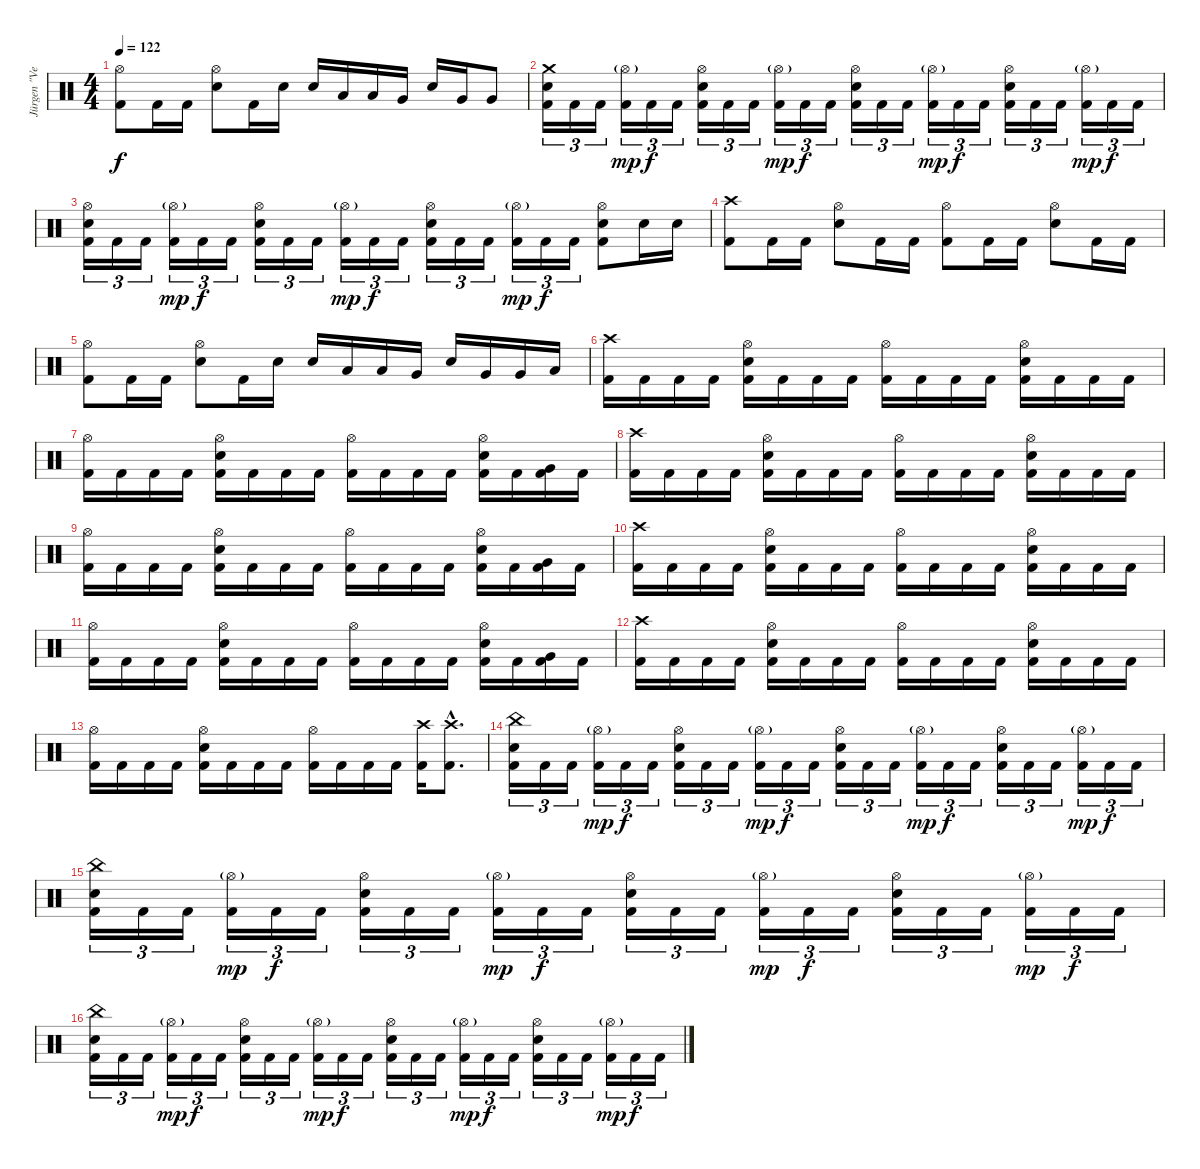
\track ("Jürgen \"Ventor\" Reil Drums" "Jürgen \"Ve") {instrument percussion}
\staff {score}
\articulation defaults
\ts (4 4)
\tempo 122
\clef neutral
\ks c
("Hi-Hat (open)" "Kick (hit) 2").8{dy f} "Kick (hit) 2".16 "Kick (hit) 2".16 ("Hi-Hat (open)" "Snare (hit) 2").8 "Kick (hit) 2".16 "Snare (hit) 2".16 "Snare (hit) 2".16 "Low Tom (hit)".16 "Low Tom (hit)".16 "Very Low Tom (hit)".16 "Snare (hit) 2".16 "Very Low Tom (hit)".16 "Very Low Tom (hit)".8 |
("Crash medium (hit)" "Snare (hit) 2" "Kick (hit) 2").16{tu (3 2)} "Kick (hit) 2".16{tu (3 2)} "Kick (hit) 2".16{tu (3 2)} ("Hi-Hat (open)"{g} "Kick (hit) 2").16{tu (3 2) dy mp} "Kick (hit) 2".16{tu (3 2) dy f} "Kick (hit) 2".16{tu (3 2)} ("Hi-Hat (open)" "Snare (hit) 2" "Kick (hit) 2").16{tu (3 2)} "Kick (hit) 2".16{tu (3 2)} "Kick (hit) 2".16{tu (3 2)} ("Hi-Hat (open)"{g} "Kick (hit) 2").16{tu (3 2) dy mp} "Kick (hit) 2".16{tu (3 2) dy f} "Kick (hit) 2".16{tu (3 2)} ("Hi-Hat (open)" "Snare (hit) 2" "Kick (hit) 2").16{tu (3 2)} "Kick (hit) 2".16{tu (3 2)} "Kick (hit) 2".16{tu (3 2)} ("Hi-Hat (open)"{g} "Kick (hit) 2").16{tu (3 2) dy mp} "Kick (hit) 2".16{tu (3 2) dy f} "Kick (hit) 2".16{tu (3 2)} ("Hi-Hat (open)" "Snare (hit) 2" "Kick (hit) 2").16{tu (3 2)} "Kick (hit) 2".16{tu (3 2)} "Kick (hit) 2".16{tu (3 2)} ("Hi-Hat (open)"{g} "Kick (hit) 2").16{tu (3 2) dy mp} "Kick (hit) 2".16{tu (3 2) dy f} "Kick (hit) 2".16{tu (3 2)} |
("Hi-Hat (open)" "Snare (hit) 2" "Kick (hit) 2").16{tu (3 2)} "Kick (hit) 2".16{tu (3 2)} "Kick (hit) 2".16{tu (3 2)} ("Hi-Hat (open)"{g} "Kick (hit) 2").16{tu (3 2) dy mp} "Kick (hit) 2".16{tu (3 2) dy f} "Kick (hit) 2".16{tu (3 2)} ("Hi-Hat (open)" "Snare (hit) 2" "Kick (hit) 2").16{tu (3 2)} "Kick (hit) 2".16{tu (3 2)} "Kick (hit) 2".16{tu (3 2)} ("Hi-Hat (open)"{g} "Kick (hit) 2").16{tu (3 2) dy mp} "Kick (hit) 2".16{tu (3 2) dy f} "Kick (hit) 2".16{tu (3 2)} ("Hi-Hat (open)" "Snare (hit) 2" "Kick (hit) 2").16{tu (3 2)} "Kick (hit) 2".16{tu (3 2)} "Kick (hit) 2".16{tu (3 2)} ("Hi-Hat (open)"{g} "Kick (hit) 2").16{tu (3 2) dy mp} "Kick (hit) 2".16{tu (3 2) dy f} "Kick (hit) 2".16{tu (3 2)} ("Hi-Hat (open)" "Snare (hit) 2" "Kick (hit) 2").8 "Snare (hit) 2".16 "Snare (hit) 2".16 |
("Crash high (hit)" "Kick (hit) 2").8 "Kick (hit) 2".16 "Kick (hit) 2".16 ("Hi-Hat (open)" "Snare (hit) 2").8 "Kick (hit) 2".16 "Kick (hit) 2".16 ("Hi-Hat (open)" "Kick (hit) 2").8 "Kick (hit) 2".16 "Kick (hit) 2".16 ("Hi-Hat (open)" "Snare (hit) 2").8 "Kick (hit) 2".16 "Kick (hit) 2".16 |
("Hi-Hat (open)" "Kick (hit) 2").8 "Kick (hit) 2".16 "Kick (hit) 2".16 ("Hi-Hat (open)" "Snare (hit) 2").8 "Kick (hit) 2".16 "Snare (hit) 2".16 "Snare (hit) 2".16 "Low Tom (hit)".16 "Low Tom (hit)".16 "Very Low Tom (hit)".16 "Snare (hit) 2".16 "Very Low Tom (hit)".16 "Very Low Tom (hit)".16 "Low Floor Tom (hit)".16 |
("Crash high (hit)" "Kick (hit) 2").16 "Kick (hit) 2".16 "Kick (hit) 2".16 "Kick (hit) 2".16 ("Snare (hit) 2" "Hi-Hat (open)" "Kick (hit) 2").16 "Kick (hit) 2".16 "Kick (hit) 2".16 "Kick (hit) 2".16 ("Hi-Hat (open)" "Kick (hit) 2").16 "Kick (hit) 2".16 "Kick (hit) 2".16 "Kick (hit) 2".16 ("Snare (hit) 2" "Hi-Hat (open)" "Kick (hit) 2").16 "Kick (hit) 2".16 "Kick (hit) 2".16 "Kick (hit) 2".16 |
("Hi-Hat (open)" "Kick (hit) 2").16 "Kick (hit) 2".16 "Kick (hit) 2".16 "Kick (hit) 2".16 ("Snare (hit) 2" "Hi-Hat (open)" "Kick (hit) 2").16 "Kick (hit) 2".16 "Kick (hit) 2".16 "Kick (hit) 2".16 ("Hi-Hat (open)" "Kick (hit) 2").16 "Kick (hit) 2".16 "Kick (hit) 2".16 "Kick (hit) 2".16 ("Hi-Hat (open)" "Snare (hit) 2" "Kick (hit) 2").16 "Kick (hit) 2".16 ("Very Low Tom (hit)" "Kick (hit) 2").16 "Kick (hit) 2".16 |
("Crash high (hit)" "Kick (hit) 2").16 "Kick (hit) 2".16 "Kick (hit) 2".16 "Kick (hit) 2".16 ("Snare (hit) 2" "Hi-Hat (open)" "Kick (hit) 2").16 "Kick (hit) 2".16 "Kick (hit) 2".16 "Kick (hit) 2".16 ("Hi-Hat (open)" "Kick (hit) 2").16 "Kick (hit) 2".16 "Kick (hit) 2".16 "Kick (hit) 2".16 ("Snare (hit) 2" "Hi-Hat (open)" "Kick (hit) 2").16 "Kick (hit) 2".16 "Kick (hit) 2".16 "Kick (hit) 2".16 |
("Hi-Hat (open)" "Kick (hit) 2").16 "Kick (hit) 2".16 "Kick (hit) 2".16 "Kick (hit) 2".16 ("Snare (hit) 2" "Hi-Hat (open)" "Kick (hit) 2").16 "Kick (hit) 2".16 "Kick (hit) 2".16 "Kick (hit) 2".16 ("Hi-Hat (open)" "Kick (hit) 2").16 "Kick (hit) 2".16 "Kick (hit) 2".16 "Kick (hit) 2".16 ("Hi-Hat (open)" "Snare (hit) 2" "Kick (hit) 2").16 "Kick (hit) 2".16 ("Very Low Tom (hit)" "Kick (hit) 2").16 "Kick (hit) 2".16 |
("Crash high (hit)" "Kick (hit) 2").16 "Kick (hit) 2".16 "Kick (hit) 2".16 "Kick (hit) 2".16 ("Snare (hit) 2" "Hi-Hat (open)" "Kick (hit) 2").16 "Kick (hit) 2".16 "Kick (hit) 2".16 "Kick (hit) 2".16 ("Hi-Hat (open)" "Kick (hit) 2").16 "Kick (hit) 2".16 "Kick (hit) 2".16 "Kick (hit) 2".16 ("Snare (hit) 2" "Hi-Hat (open)" "Kick (hit) 2").16 "Kick (hit) 2".16 "Kick (hit) 2".16 "Kick (hit) 2".16 |
("Hi-Hat (open)" "Kick (hit) 2").16 "Kick (hit) 2".16 "Kick (hit) 2".16 "Kick (hit) 2".16 ("Snare (hit) 2" "Hi-Hat (open)" "Kick (hit) 2").16 "Kick (hit) 2".16 "Kick (hit) 2".16 "Kick (hit) 2".16 ("Hi-Hat (open)" "Kick (hit) 2").16 "Kick (hit) 2".16 "Kick (hit) 2".16 "Kick (hit) 2".16 ("Hi-Hat (open)" "Snare (hit) 2" "Kick (hit) 2").16 "Kick (hit) 2".16 ("Very Low Tom (hit)" "Kick (hit) 2").16 "Kick (hit) 2".16 |
("Crash high (hit)" "Kick (hit) 2").16 "Kick (hit) 2".16 "Kick (hit) 2".16 "Kick (hit) 2".16 ("Snare (hit) 2" "Hi-Hat (open)" "Kick (hit) 2").16 "Kick (hit) 2".16 "Kick (hit) 2".16 "Kick (hit) 2".16 ("Hi-Hat (open)" "Kick (hit) 2").16 "Kick (hit) 2".16 "Kick (hit) 2".16 "Kick (hit) 2".16 ("Snare (hit) 2" "Hi-Hat (open)" "Kick (hit) 2").16 "Kick (hit) 2".16 "Kick (hit) 2".16 "Kick (hit) 2".16 |
("Hi-Hat (open)" "Kick (hit) 2").16 "Kick (hit) 2".16 "Kick (hit) 2".16 "Kick (hit) 2".16 ("Snare (hit) 2" "Hi-Hat (open)" "Kick (hit) 2").16 "Kick (hit) 2".16 "Kick (hit) 2".16 "Kick (hit) 2".16 ("Hi-Hat (open)" "Kick (hit) 2").16 "Kick (hit) 2".16 "Kick (hit) 2".16 "Kick (hit) 2".16 ("Crash high (hit)" "Kick (hit) 2").16 ("Crash high (hit)"{hac} "Kick (hit) 2"{hac}).8{d} |
("China (hit)" "Snare (hit) 2" "Kick (hit) 2").16{tu (3 2)} "Kick (hit) 2".16{tu (3 2)} "Kick (hit) 2".16{tu (3 2)} ("Hi-Hat (open)"{g} "Kick (hit) 2").16{tu (3 2) dy mp} "Kick (hit) 2".16{tu (3 2) dy f} "Kick (hit) 2".16{tu (3 2)} ("Hi-Hat (open)" "Snare (hit) 2" "Kick (hit) 2").16{tu (3 2)} "Kick (hit) 2".16{tu (3 2)} "Kick (hit) 2".16{tu (3 2)} ("Hi-Hat (open)"{g} "Kick (hit) 2").16{tu (3 2) dy mp} "Kick (hit) 2".16{tu (3 2) dy f} "Kick (hit) 2".16{tu (3 2)} ("Hi-Hat (open)" "Snare (hit) 2" "Kick (hit) 2").16{tu (3 2)} "Kick (hit) 2".16{tu (3 2)} "Kick (hit) 2".16{tu (3 2)} ("Hi-Hat (open)"{g} "Kick (hit) 2").16{tu (3 2) dy mp} "Kick (hit) 2".16{tu (3 2) dy f} "Kick (hit) 2".16{tu (3 2)} ("Hi-Hat (open)" "Snare (hit) 2" "Kick (hit) 2").16{tu (3 2)} "Kick (hit) 2".16{tu (3 2)} "Kick (hit) 2".16{tu (3 2)} ("Hi-Hat (open)"{g} "Kick (hit) 2").16{tu (3 2) dy mp} "Kick (hit) 2".16{tu (3 2) dy f} "Kick (hit) 2".16{tu (3 2)} |
("China (hit)" "Snare (hit) 2" "Kick (hit) 2").16{tu (3 2)} "Kick (hit) 2".16{tu (3 2)} "Kick (hit) 2".16{tu (3 2)} ("Hi-Hat (open)"{g} "Kick (hit) 2").16{tu (3 2) dy mp} "Kick (hit) 2".16{tu (3 2) dy f} "Kick (hit) 2".16{tu (3 2)} ("Hi-Hat (open)" "Snare (hit) 2" "Kick (hit) 2").16{tu (3 2)} "Kick (hit) 2".16{tu (3 2)} "Kick (hit) 2".16{tu (3 2)} ("Hi-Hat (open)"{g} "Kick (hit) 2").16{tu (3 2) dy mp} "Kick (hit) 2".16{tu (3 2) dy f} "Kick (hit) 2".16{tu (3 2)} ("Hi-Hat (open)" "Snare (hit) 2" "Kick (hit) 2").16{tu (3 2)} "Kick (hit) 2".16{tu (3 2)} "Kick (hit) 2".16{tu (3 2)} ("Hi-Hat (open)"{g} "Kick (hit) 2").16{tu (3 2) dy mp} "Kick (hit) 2".16{tu (3 2) dy f} "Kick (hit) 2".16{tu (3 2)} ("Hi-Hat (open)" "Snare (hit) 2" "Kick (hit) 2").16{tu (3 2)} "Kick (hit) 2".16{tu (3 2)} "Kick (hit) 2".16{tu (3 2)} ("Hi-Hat (open)"{g} "Kick (hit) 2").16{tu (3 2) dy mp} "Kick (hit) 2".16{tu (3 2) dy f} "Kick (hit) 2".16{tu (3 2)} |
("China (hit)" "Snare (hit) 2" "Kick (hit) 2").16{tu (3 2)} "Kick (hit) 2".16{tu (3 2)} "Kick (hit) 2".16{tu (3 2)} ("Hi-Hat (open)"{g} "Kick (hit) 2").16{tu (3 2) dy mp} "Kick (hit) 2".16{tu (3 2) dy f} "Kick (hit) 2".16{tu (3 2)} ("Hi-Hat (open)" "Snare (hit) 2" "Kick (hit) 2").16{tu (3 2)} "Kick (hit) 2".16{tu (3 2)} "Kick (hit) 2".16{tu (3 2)} ("Hi-Hat (open)"{g} "Kick (hit) 2").16{tu (3 2) dy mp} "Kick (hit) 2".16{tu (3 2) dy f} "Kick (hit) 2".16{tu (3 2)} ("Hi-Hat (open)" "Snare (hit) 2" "Kick (hit) 2").16{tu (3 2)} "Kick (hit) 2".16{tu (3 2)} "Kick (hit) 2".16{tu (3 2)} ("Hi-Hat (open)"{g} "Kick (hit) 2").16{tu (3 2) dy mp} "Kick (hit) 2".16{tu (3 2) dy f} "Kick (hit) 2".16{tu (3 2)} ("Hi-Hat (open)" "Snare (hit) 2" "Kick (hit) 2").16{tu (3 2)} "Kick (hit) 2".16{tu (3 2)} "Kick (hit) 2".16{tu (3 2)} ("Hi-Hat (open)"{g} "Kick (hit) 2").16{tu (3 2) dy mp} "Kick (hit) 2".16{tu (3 2) dy f} "Kick (hit) 2".16{tu (3 2)}
